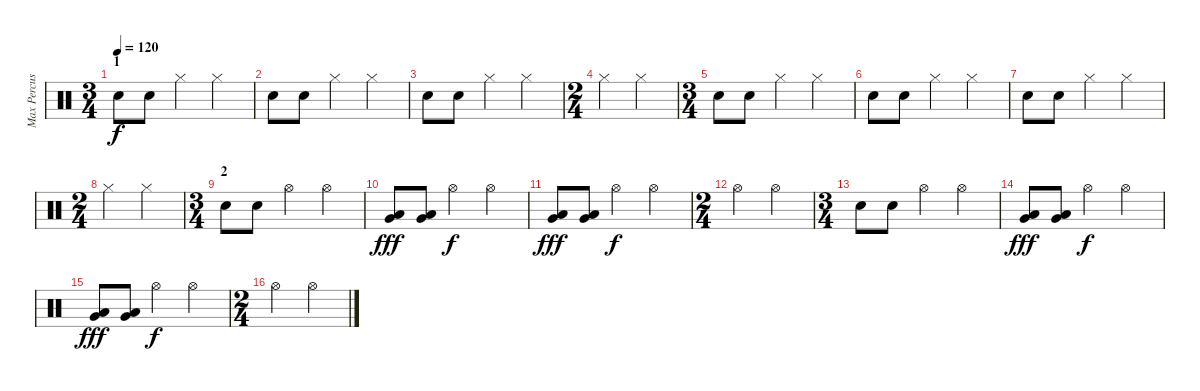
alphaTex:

\track ("Max Percussion" "Max Percus") {instrument percussion}
\staff {score}
\articulation defaults
\ts (3 4)
\section ("" "1")
\tempo 120
\clef neutral
\ks c "Snare (hit) 2".8{dy f} "Snare (hit) 2".8 "Hi-Hat (closed)".4 "Hi-Hat (closed)".4
|
"Snare (hit) 2".8 "Snare (hit) 2".8 "Hi-Hat (closed)".4 "Hi-Hat (closed)".4 |
"Snare (hit) 2".8 "Snare (hit) 2".8 "Hi-Hat (closed)".4 "Hi-Hat (closed)".4 |
\ts (2 4)
"Hi-Hat (closed)".4 "Hi-Hat (closed)".4 |
\ts (3 4)
"Snare (hit) 2".8 "Snare (hit) 2".8 "Hi-Hat (closed)".4 "Hi-Hat (closed)".4 |
"Snare (hit) 2".8 "Snare (hit) 2".8 "Hi-Hat (closed)".4 "Hi-Hat (closed)".4 |
"Snare (hit) 2".8 "Snare (hit) 2".8 "Hi-Hat (closed)".4 "Hi-Hat (closed)".4 |
\ts (2 4)
"Hi-Hat (closed)".4 "Hi-Hat (closed)".4 |
\ts (3 4)
\section ("" "2")
"Snare (hit) 2".8 "Snare (hit) 2".8 "Hi-Hat (open)".4 "Hi-Hat (open)".4 |
("Low Tom (hit)" "Very Low Tom (hit)").8{dy fff} ("Low Tom (hit)" "Very Low Tom (hit)").8 "Hi-Hat (open)".4{dy f} "Hi-Hat (open)".4 |
("Very Low Tom (hit)" "Low Floor Tom (hit)").8{dy fff} ("Very Low Tom (hit)" "Low Floor Tom (hit)").8 "Hi-Hat (open)".4{dy f} "Hi-Hat (open)".4 |
\ts (2 4)
"Hi-Hat (open)".4 "Hi-Hat (open)".4 |
\ts (3 4)
"Snare (hit) 2".8 "Snare (hit) 2".8 "Hi-Hat (open)".4 "Hi-Hat (open)".4 |
("Low Tom (hit)" "Very Low Tom (hit)").8{dy fff} ("Low Tom (hit)" "Very Low Tom (hit)").8 "Hi-Hat (open)".4{dy f} "Hi-Hat (open)".4 |
("Very Low Tom (hit)" "Low Floor Tom (hit)").8{dy fff} ("Very Low Tom (hit)" "Low Floor Tom (hit)").8 "Hi-Hat (open)".4{dy f} "Hi-Hat (open)".4 |
\ts (2 4)
"Hi-Hat (open)".4 "Hi-Hat (open)".4
